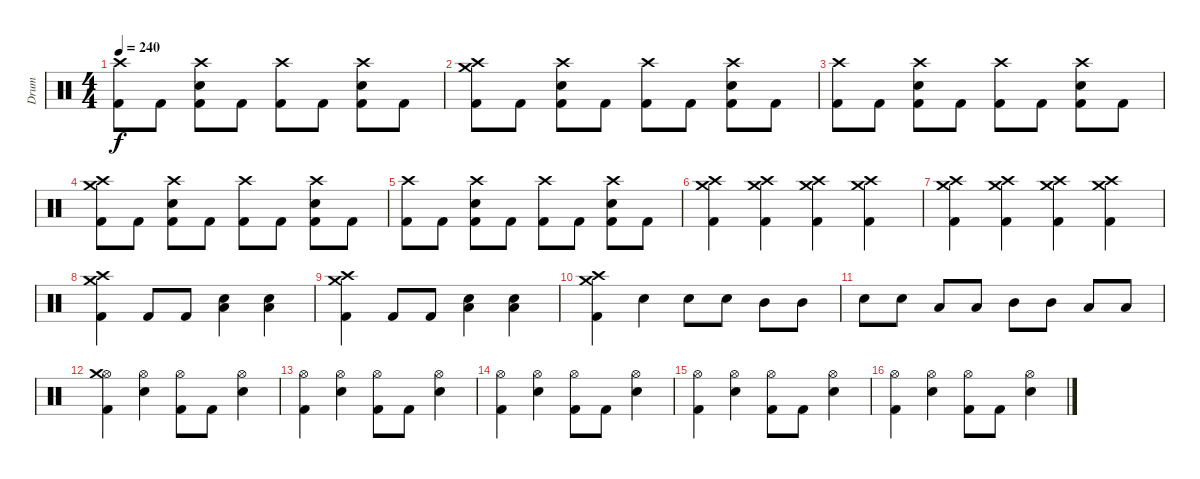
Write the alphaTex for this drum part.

\track ("Drum" "Drum") {instrument percussion}
\staff {score}
\articulation defaults
\ts (4 4)
\tempo 240
\clef neutral
\ks c
("Crash high (hit)" "Kick (hit) 2").8{dy f} "Kick (hit) 2".8 ("Crash high (hit)" "Kick (hit) 2" "Electric Snare (hit)").8 "Kick (hit) 2".8 ("Crash high (hit)" "Kick (hit) 2").8 "Kick (hit) 2".8 ("Crash high (hit)" "Kick (hit) 2" "Electric Snare (hit)").8 "Kick (hit) 2".8 |
("Crash high (hit)" "Kick (hit) 2" "Crash medium (hit)").8 "Kick (hit) 2".8 ("Crash high (hit)" "Kick (hit) 2" "Electric Snare (hit)").8 "Kick (hit) 2".8 ("Crash high (hit)" "Kick (hit) 2").8 "Kick (hit) 2".8 ("Crash high (hit)" "Kick (hit) 2" "Electric Snare (hit)").8 "Kick (hit) 2".8 |
("Crash high (hit)" "Kick (hit) 2").8 "Kick (hit) 2".8 ("Crash high (hit)" "Kick (hit) 2" "Electric Snare (hit)").8 "Kick (hit) 2".8 ("Crash high (hit)" "Kick (hit) 2").8 "Kick (hit) 2".8 ("Crash high (hit)" "Kick (hit) 2" "Electric Snare (hit)").8 "Kick (hit) 2".8 |
("Crash high (hit)" "Kick (hit) 2" "Crash medium (hit)").8 "Kick (hit) 2".8 ("Crash high (hit)" "Kick (hit) 2" "Electric Snare (hit)").8 "Kick (hit) 2".8 ("Crash high (hit)" "Kick (hit) 2").8 "Kick (hit) 2".8 ("Crash high (hit)" "Kick (hit) 2" "Electric Snare (hit)").8 "Kick (hit) 2".8 |
("Crash high (hit)" "Kick (hit) 2").8 "Kick (hit) 2".8 ("Crash high (hit)" "Kick (hit) 2" "Electric Snare (hit)").8 "Kick (hit) 2".8 ("Crash high (hit)" "Kick (hit) 2").8 "Kick (hit) 2".8 ("Crash high (hit)" "Kick (hit) 2" "Electric Snare (hit)").8 "Kick (hit) 2".8 |
("Crash high (hit)" "Kick (hit) 2" "Crash medium (hit)").4 ("Crash high (hit)" "Kick (hit) 2" "Crash medium (hit)").4 ("Crash high (hit)" "Kick (hit) 2" "Crash medium (hit)").4 ("Crash high (hit)" "Kick (hit) 2" "Crash medium (hit)").4 |
("Crash high (hit)" "Kick (hit) 2" "Crash medium (hit)").4 ("Crash high (hit)" "Kick (hit) 2" "Crash medium (hit)").4 ("Crash high (hit)" "Kick (hit) 2" "Crash medium (hit)").4 ("Crash high (hit)" "Kick (hit) 2" "Crash medium (hit)").4 |
("Crash high (hit)" "Kick (hit) 2" "Crash medium (hit)").4 "Kick (hit) 2".8 "Kick (hit) 2".8 ("Low Floor Tom (hit)" "Electric Snare (hit)").4 ("Low Floor Tom (hit)" "Electric Snare (hit)").4 |
("Crash high (hit)" "Kick (hit) 2" "Crash medium (hit)").4 "Kick (hit) 2".8 "Kick (hit) 2".8 ("Low Floor Tom (hit)" "Electric Snare (hit)").4 ("Low Floor Tom (hit)" "Electric Snare (hit)").4 |
("Crash high (hit)" "Kick (hit) 2" "Crash medium (hit)").4 "Electric Snare (hit)".4 "Electric Snare (hit)".8 "Electric Snare (hit)".8 "Mid Tom (hit)".8 "Mid Tom (hit)".8 |
"Electric Snare (hit)".8 "Electric Snare (hit)".8 "Low Tom (hit)".8 "Low Tom (hit)".8 "Mid Tom (hit)".8 "Mid Tom (hit)".8 "Low Floor Tom (hit)".8 "Low Floor Tom (hit)".8 |
("Hi-Hat (open)" "Kick (hit) 2" "Crash medium (hit)").4 ("Hi-Hat (open)" "Electric Snare (hit)").4 ("Hi-Hat (open)" "Kick (hit) 2").8 "Kick (hit) 2".8 ("Hi-Hat (open)" "Electric Snare (hit)").4 |
("Hi-Hat (open)" "Kick (hit) 2").4 ("Hi-Hat (open)" "Electric Snare (hit)").4 ("Hi-Hat (open)" "Kick (hit) 2").8 "Kick (hit) 2".8 ("Hi-Hat (open)" "Electric Snare (hit)").4 |
("Hi-Hat (open)" "Kick (hit) 2").4 ("Hi-Hat (open)" "Electric Snare (hit)").4 ("Hi-Hat (open)" "Kick (hit) 2").8 "Kick (hit) 2".8 ("Hi-Hat (open)" "Electric Snare (hit)").4 |
("Hi-Hat (open)" "Kick (hit) 2").4 ("Hi-Hat (open)" "Electric Snare (hit)").4 ("Hi-Hat (open)" "Kick (hit) 2").8 "Kick (hit) 2".8 ("Hi-Hat (open)" "Electric Snare (hit)").4 |
("Hi-Hat (open)" "Kick (hit) 2").4 ("Hi-Hat (open)" "Electric Snare (hit)").4 ("Hi-Hat (open)" "Kick (hit) 2").8 "Kick (hit) 2".8 ("Hi-Hat (open)" "Electric Snare (hit)").4
